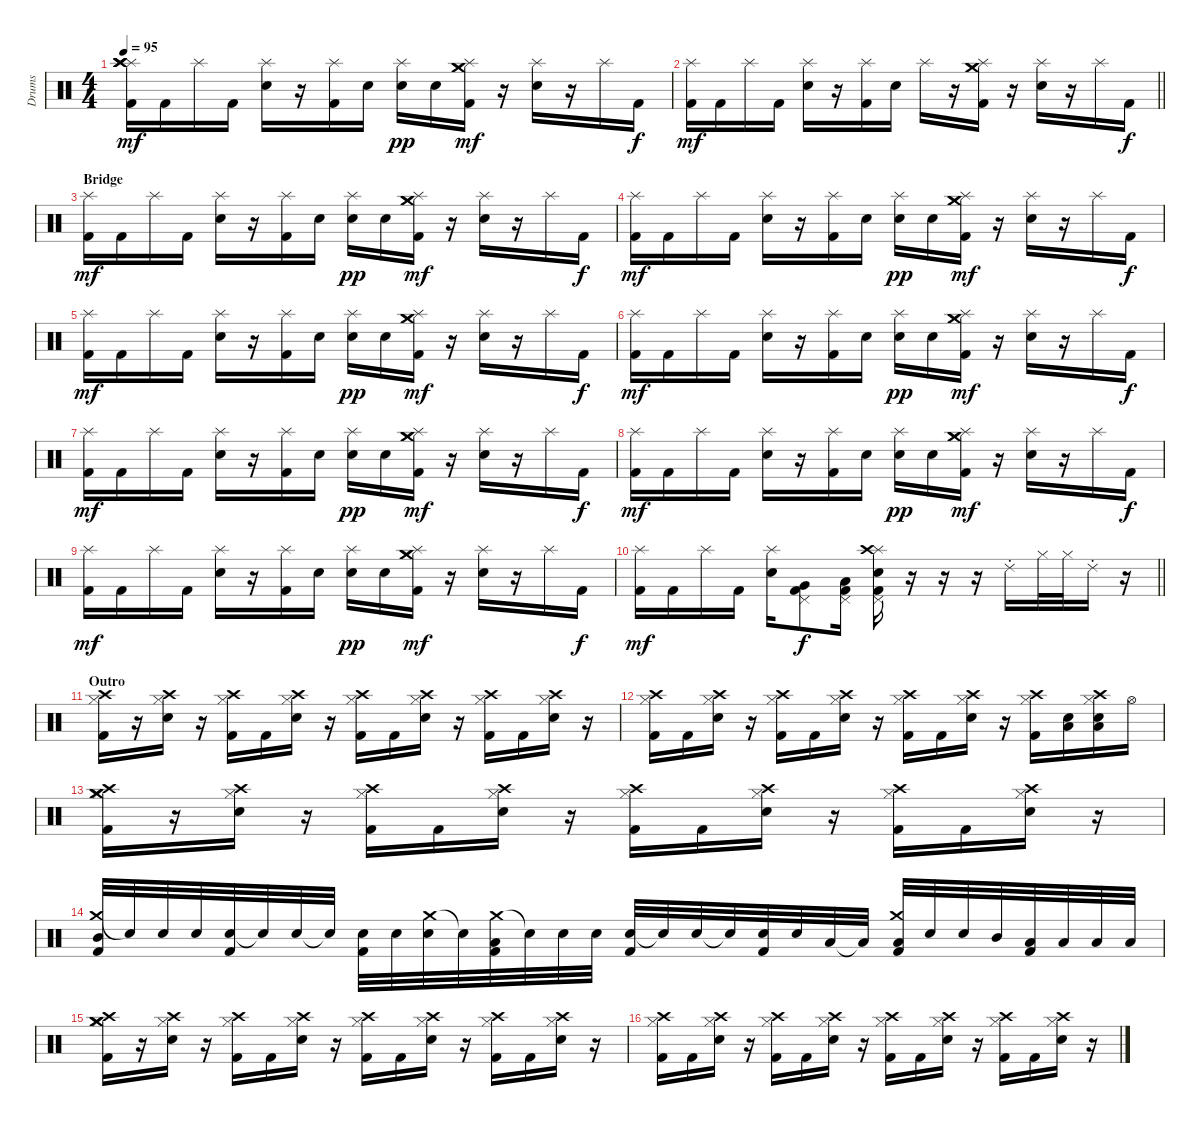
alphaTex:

\track ("Drums" "Drums") {instrument percussion}
\staff {score}
\articulation defaults
\ts (4 4)
\tempo 95
\clef neutral
\ks c
("Splash (hit)" "Kick (hit) 2" "Crash high (hit)" "Crash high (hit)" "Crash high (hit)").16{dy mf} "Kick (hit) 2".16 "Splash (hit)".16 "Kick (hit) 2".16 ("Splash (hit)" "Snare (hit) 2").16 r.16 ("Splash (hit)" "Kick (hit) 2").16 "Snare (hit) 2".16 ("Splash (hit)" "Snare (hit) 2").16{dy pp} "Snare (hit) 2".16 ("Splash (hit)" "Kick (hit) 2" "Crash medium (hit)" "Crash medium (hit)").16{dy mf} r.16 ("Splash (hit)" "Snare (hit) 2").16 r.16 "Splash (hit)".16 "Kick (hit) 2".16{dy f} |
\barLineRight lightlight
("Splash (hit)" "Kick (hit) 2").16{dy mf} "Kick (hit) 2".16 "Splash (hit)".16 "Kick (hit) 2".16 ("Splash (hit)" "Snare (hit) 2").16 r.16 ("Splash (hit)" "Kick (hit) 2").16 "Snare (hit) 2".16 "Splash (hit)".16 r.16 ("Splash (hit)" "Kick (hit) 2" "Crash medium (hit)" "Crash medium (hit)").16 r.16 ("Splash (hit)" "Snare (hit) 2").16 r.16 "Splash (hit)".16 "Kick (hit) 2".16{dy f} |
\section ("" "Bridge")
("Splash (hit)" "Kick (hit) 2").16{dy mf} "Kick (hit) 2".16 "Splash (hit)".16 "Kick (hit) 2".16 ("Splash (hit)" "Snare (hit) 2").16 r.16 ("Splash (hit)" "Kick (hit) 2").16 "Snare (hit) 2".16 ("Splash (hit)" "Snare (hit) 2").16{dy pp} "Snare (hit) 2".16 ("Splash (hit)" "Kick (hit) 2" "Crash medium (hit)" "Crash medium (hit)").16{dy mf} r.16 ("Splash (hit)" "Snare (hit) 2").16 r.16 "Splash (hit)".16 "Kick (hit) 2".16{dy f} |
("Splash (hit)" "Kick (hit) 2").16{dy mf} "Kick (hit) 2".16 "Splash (hit)".16 "Kick (hit) 2".16 ("Splash (hit)" "Snare (hit) 2").16 r.16 ("Splash (hit)" "Kick (hit) 2").16 "Snare (hit) 2".16 ("Splash (hit)" "Snare (hit) 2").16{dy pp} "Snare (hit) 2".16 ("Splash (hit)" "Kick (hit) 2" "Crash medium (hit)" "Crash medium (hit)").16{dy mf} r.16 ("Splash (hit)" "Snare (hit) 2").16 r.16 "Splash (hit)".16 "Kick (hit) 2".16{dy f} |
("Splash (hit)" "Kick (hit) 2").16{dy mf} "Kick (hit) 2".16 "Splash (hit)".16 "Kick (hit) 2".16 ("Splash (hit)" "Snare (hit) 2").16 r.16 ("Splash (hit)" "Kick (hit) 2").16 "Snare (hit) 2".16 ("Splash (hit)" "Snare (hit) 2").16{dy pp} "Snare (hit) 2".16 ("Splash (hit)" "Kick (hit) 2" "Crash medium (hit)" "Crash medium (hit)").16{dy mf} r.16 ("Splash (hit)" "Snare (hit) 2").16 r.16 "Splash (hit)".16 "Kick (hit) 2".16{dy f} |
("Splash (hit)" "Kick (hit) 2").16{dy mf} "Kick (hit) 2".16 "Splash (hit)".16 "Kick (hit) 2".16 ("Splash (hit)" "Snare (hit) 2").16 r.16 ("Splash (hit)" "Kick (hit) 2").16 "Snare (hit) 2".16 ("Splash (hit)" "Snare (hit) 2").16{dy pp} "Snare (hit) 2".16 ("Splash (hit)" "Kick (hit) 2" "Crash medium (hit)" "Crash medium (hit)").16{dy mf} r.16 ("Splash (hit)" "Snare (hit) 2").16 r.16 "Splash (hit)".16 "Kick (hit) 2".16{dy f} |
("Splash (hit)" "Kick (hit) 2").16{dy mf} "Kick (hit) 2".16 "Splash (hit)".16 "Kick (hit) 2".16 ("Splash (hit)" "Snare (hit) 2").16 r.16 ("Splash (hit)" "Kick (hit) 2").16 "Snare (hit) 2".16 ("Splash (hit)" "Snare (hit) 2").16{dy pp} "Snare (hit) 2".16 ("Splash (hit)" "Kick (hit) 2" "Crash medium (hit)" "Crash medium (hit)").16{dy mf} r.16 ("Splash (hit)" "Snare (hit) 2").16 r.16 "Splash (hit)".16 "Kick (hit) 2".16{dy f} |
("Splash (hit)" "Kick (hit) 2").16{dy mf} "Kick (hit) 2".16 "Splash (hit)".16 "Kick (hit) 2".16 ("Splash (hit)" "Snare (hit) 2").16 r.16 ("Splash (hit)" "Kick (hit) 2").16 "Snare (hit) 2".16 ("Splash (hit)" "Snare (hit) 2").16{dy pp} "Snare (hit) 2".16 ("Splash (hit)" "Kick (hit) 2" "Crash medium (hit)" "Crash medium (hit)").16{dy mf} r.16 ("Splash (hit)" "Snare (hit) 2").16 r.16 "Splash (hit)".16 "Kick (hit) 2".16{dy f} |
("Splash (hit)" "Kick (hit) 2").16{dy mf} "Kick (hit) 2".16 "Splash (hit)".16 "Kick (hit) 2".16 ("Splash (hit)" "Snare (hit) 2").16 r.16 ("Splash (hit)" "Kick (hit) 2").16 "Snare (hit) 2".16 ("Splash (hit)" "Snare (hit) 2").16{dy pp} "Snare (hit) 2".16 ("Splash (hit)" "Kick (hit) 2" "Crash medium (hit)" "Crash medium (hit)").16{dy mf} r.16 ("Splash (hit)" "Snare (hit) 2").16 r.16 "Splash (hit)".16 "Kick (hit) 2".16{dy f} |
\barLineRight lightlight
("Splash (hit)" "Kick (hit) 2").16{dy mf} "Kick (hit) 2".16 "Splash (hit)".16 "Kick (hit) 2".16 ("Splash (hit)" "Snare (hit) 2").16 ("Pedal Hi-Hat (hit)" "Very Low Tom (hit)" "Kick (hit) 2").8{dy f} ("Pedal Hi-Hat (hit)" "Low Floor Tom (hit)" "Kick (hit) 2").16 ("Pedal Hi-Hat (hit)" "Snare (hit) 2" "Kick (hit) 2" "Splash (hit)" "Crash high (hit)").16 r.16 r.16 r.16 "Ride (choke) 2".16 "Hi-Hat (closed)".32 "Hi-Hat (closed)".32 "Ride (choke) 2".16 r.16 |
\section ("" "Outro")
("Hi-Hat (closed)" "Kick (hit) 2" "Crash high (hit)").16 r.16 ("Hi-Hat (closed)" "Snare (hit) 2" "Crash high (hit)").16 r.16 ("Hi-Hat (closed)" "Kick (hit) 2" "Crash high (hit)").16 "Kick (hit) 2".16 ("Hi-Hat (closed)" "Snare (hit) 2" "Crash high (hit)").16 r.16 ("Hi-Hat (closed)" "Kick (hit) 2" "Crash high (hit)").16 "Kick (hit) 2".16 ("Hi-Hat (closed)" "Snare (hit) 2" "Crash high (hit)").16 r.16 ("Hi-Hat (closed)" "Kick (hit) 2" "Crash high (hit)").16 "Kick (hit) 2".16 ("Hi-Hat (closed)" "Snare (hit) 2" "Crash high (hit)").16 r.16 |
("Hi-Hat (closed)" "Kick (hit) 2" "Crash high (hit)").16 "Kick (hit) 2".16 ("Hi-Hat (closed)" "Snare (hit) 2" "Crash high (hit)").16 r.16 ("Hi-Hat (closed)" "Kick (hit) 2" "Crash high (hit)").16 "Kick (hit) 2".16 ("Hi-Hat (closed)" "Snare (hit) 2" "Crash high (hit)").16 r.16 ("Hi-Hat (closed)" "Kick (hit) 2" "Crash high (hit)").16 "Kick (hit) 2".16 ("Hi-Hat (closed)" "Snare (hit) 2" "Crash high (hit)").16 r.16 ("Hi-Hat (closed)" "Kick (hit) 2" "Crash high (hit)").16 ("Snare (hit) 2" "Low Floor Tom (hit)").16 ("Hi-Hat (closed)" "Snare (hit) 2" "Low Floor Tom (hit)" "Crash high (hit)").16 "Hi-Hat (open)".16 |
("Hi-Hat (closed)" "Kick (hit) 2" "Crash medium (hit)" "Crash high (hit)" "Crash medium (hit)").16 r.16 ("Hi-Hat (closed)" "Snare (hit) 2" "Crash high (hit)").16 r.16 ("Hi-Hat (closed)" "Kick (hit) 2" "Crash high (hit)").16 "Kick (hit) 2".16 ("Hi-Hat (closed)" "Snare (hit) 2" "Crash high (hit)").16 r.16 ("Hi-Hat (closed)" "Kick (hit) 2" "Crash high (hit)").16 "Kick (hit) 2".16 ("Hi-Hat (closed)" "Snare (hit) 2" "Crash high (hit)").16 r.16 ("Hi-Hat (closed)" "Kick (hit) 2" "Crash high (hit)").16 "Kick (hit) 2".16 ("Hi-Hat (closed)" "Snare (hit) 2" "Crash high (hit)").16 r.16 |
("Crash medium (hit)" "Mid Tom (hit)" "Kick (hit) 2").32 "Snare (hit)"{t}.32 "Snare (hit) 2".32 "Snare (hit) 2".32 ("Snare (hit) 2" "Kick (hit) 2").32 "Snare (hit) 2"{t}.32 "Snare (hit) 2".32 "Snare (hit) 2"{t}.32 ("Snare (hit) 2" "Kick (hit) 2").32 "Snare (hit) 2".32 ("Crash medium (hit)" "Snare (hit) 2").32 "Snare (hit) 2"{t}.32 ("Crash medium (hit)" "Low Tom (hit)" "Kick (hit) 2").32 "Snare (hit)"{t}.32 "Snare (hit) 2".32 "Snare (hit) 2".32 ("Snare (hit) 2" "Kick (hit) 2").32 "Snare (hit)"{t}.32 "Snare (hit) 2".32 "Snare (hit)"{t}.32 ("Snare (hit) 2" "Kick (hit) 2").32 "Snare (hit) 2".32 "Low Tom (hit)".32 "Low Tom (hit)"{t}.32 ("Crash medium (hit)" "Low Floor Tom (hit)" "Kick (hit) 2").32 "Snare (hit) 2".32 "Snare (hit) 2".32 "Mid Tom (hit)".32 ("Low Tom (hit)" "Kick (hit) 2").32 "Low Tom (hit)".32 "Low Floor Tom (hit)".32 "Low Floor Tom (hit)".32 |
("Hi-Hat (closed)" "Kick (hit) 2" "Crash medium (hit)" "Crash high (hit)" "Crash medium (hit)").16 r.16 ("Hi-Hat (closed)" "Snare (hit) 2" "Crash high (hit)").16 r.16 ("Hi-Hat (closed)" "Kick (hit) 2" "Crash high (hit)").16 "Kick (hit) 2".16 ("Hi-Hat (closed)" "Snare (hit) 2" "Crash high (hit)").16 r.16 ("Hi-Hat (closed)" "Kick (hit) 2" "Crash high (hit)").16 "Kick (hit) 2".16 ("Hi-Hat (closed)" "Snare (hit) 2" "Crash high (hit)").16 r.16 ("Hi-Hat (closed)" "Kick (hit) 2" "Crash high (hit)").16 "Kick (hit) 2".16 ("Hi-Hat (closed)" "Snare (hit) 2" "Crash high (hit)").16 r.16 |
("Hi-Hat (closed)" "Kick (hit) 2" "Crash high (hit)").16 "Kick (hit) 2".16 ("Hi-Hat (closed)" "Snare (hit) 2" "Crash high (hit)").16 r.16 ("Hi-Hat (closed)" "Kick (hit) 2" "Crash high (hit)").16 "Kick (hit) 2".16 ("Hi-Hat (closed)" "Snare (hit) 2" "Crash high (hit)").16 r.16 ("Hi-Hat (closed)" "Kick (hit) 2" "Crash high (hit)").16 "Kick (hit) 2".16 ("Hi-Hat (closed)" "Snare (hit) 2" "Crash high (hit)").16 r.16 ("Hi-Hat (closed)" "Kick (hit) 2" "Crash high (hit)").16 "Kick (hit) 2".16 ("Hi-Hat (closed)" "Snare (hit) 2" "Crash high (hit)").16 r.16
